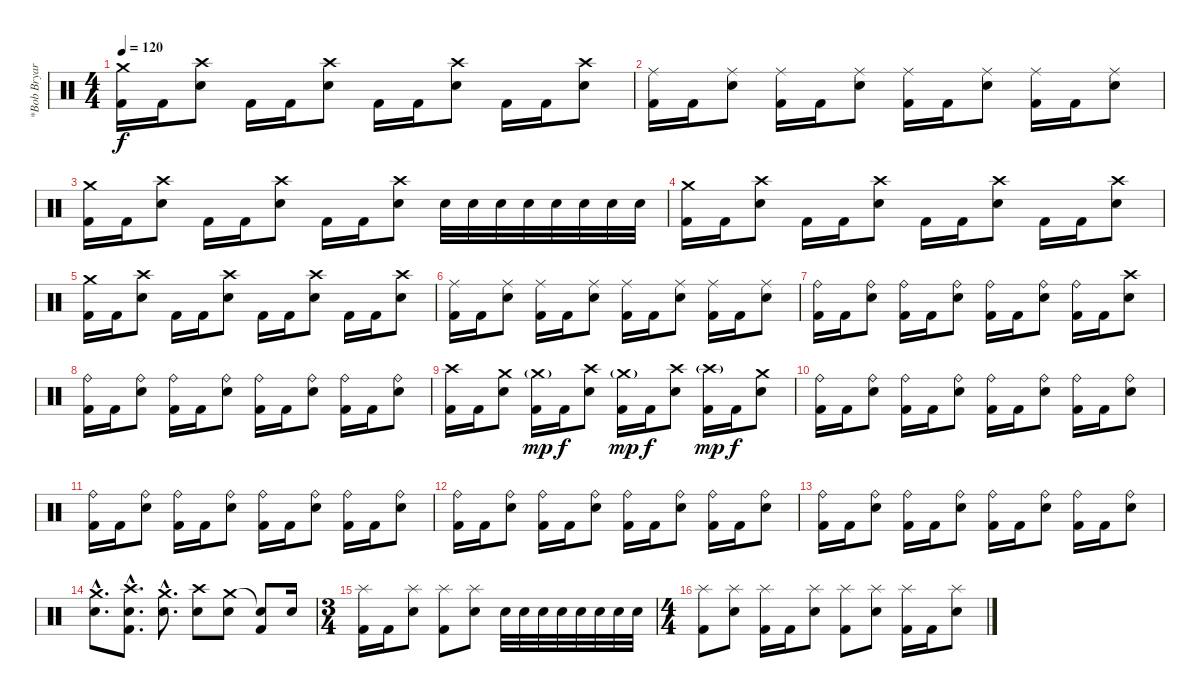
\track ("*Bob Bryar" "*Bob Bryar") {instrument percussion}
\staff {score}
\articulation defaults
\ts (4 4)
\tempo 120
\clef neutral
\ks c
("Crash medium (hit)" "Kick (hit) 2").16{dy f} "Kick (hit) 2".16 ("Crash high (hit)" "Electric Snare (hit)").8 "Kick (hit) 2".16 "Kick (hit) 2".16 ("Crash high (hit)" "Electric Snare (hit)").8 "Kick (hit) 2".16 "Kick (hit) 2".16 ("Crash high (hit)" "Electric Snare (hit)").8 "Kick (hit) 2".16 "Kick (hit) 2".16 ("Crash high (hit)" "Electric Snare (hit)").8 |
("Ride (middle)" "Kick (hit) 2").16 "Kick (hit) 2".16 ("Ride (middle)" "Electric Snare (hit)").8 ("Ride (middle)" "Kick (hit) 2").16 "Kick (hit) 2".16 ("Ride (middle)" "Electric Snare (hit)").8 ("Ride (middle)" "Kick (hit) 2").16 "Kick (hit) 2".16 ("Ride (middle)" "Electric Snare (hit)").8 ("Ride (middle)" "Kick (hit) 2").16 "Kick (hit) 2".16 ("Ride (middle)" "Electric Snare (hit)").8 |
("Crash medium (hit)" "Kick (hit) 2").16 "Kick (hit) 2".16 ("Crash high (hit)" "Electric Snare (hit)").8 "Kick (hit) 2".16 "Kick (hit) 2".16 ("Crash high (hit)" "Electric Snare (hit)").8 "Kick (hit) 2".16 "Kick (hit) 2".16 ("Crash high (hit)" "Electric Snare (hit)").8 "Electric Snare (hit)".32 "Electric Snare (hit)".32 "Electric Snare (hit)".32 "Electric Snare (hit)".32 "Electric Snare (hit)".32 "Electric Snare (hit)".32 "Electric Snare (hit)".32 "Electric Snare (hit)".32 |
("Crash medium (hit)" "Kick (hit) 2").16 "Kick (hit) 2".16 ("Crash high (hit)" "Electric Snare (hit)").8 "Kick (hit) 2".16 "Kick (hit) 2".16 ("Crash high (hit)" "Electric Snare (hit)").8 "Kick (hit) 2".16 "Kick (hit) 2".16 ("Crash high (hit)" "Electric Snare (hit)").8 "Kick (hit) 2".16 "Kick (hit) 2".16 ("Crash high (hit)" "Electric Snare (hit)").8 |
("Crash medium (hit)" "Kick (hit) 2").16 "Kick (hit) 2".16 ("Crash high (hit)" "Electric Snare (hit)").8 "Kick (hit) 2".16 "Kick (hit) 2".16 ("Crash high (hit)" "Electric Snare (hit)").8 "Kick (hit) 2".16 "Kick (hit) 2".16 ("Crash high (hit)" "Electric Snare (hit)").8 "Kick (hit) 2".16 "Kick (hit) 2".16 ("Crash high (hit)" "Electric Snare (hit)").8 |
("Ride (middle)" "Kick (hit) 2").16 "Kick (hit) 2".16 ("Ride (middle)" "Electric Snare (hit)").8 ("Ride (middle)" "Kick (hit) 2").16 "Kick (hit) 2".16 ("Ride (middle)" "Electric Snare (hit)").8 ("Ride (middle)" "Kick (hit) 2").16 "Kick (hit) 2".16 ("Ride (middle)" "Electric Snare (hit)").8 ("Ride (middle)" "Kick (hit) 2").16 "Kick (hit) 2".16 ("Ride (middle)" "Electric Snare (hit)").8 |
("Ride (bell)" "Kick (hit) 2").16 "Kick (hit) 2".16 ("Ride (bell)" "Electric Snare (hit)").8 ("Ride (bell)" "Kick (hit) 2").16 "Kick (hit) 2".16 ("Ride (bell)" "Electric Snare (hit)").8 ("Ride (bell)" "Kick (hit) 2").16 "Kick (hit) 2".16 ("Ride (bell)" "Electric Snare (hit)").8 ("Ride (bell)" "Kick (hit) 2").16 "Kick (hit) 2".16 ("Crash high (hit)" "Electric Snare (hit)").8 |
("Ride (bell)" "Kick (hit) 2").16 "Kick (hit) 2".16 ("Ride (bell)" "Electric Snare (hit)").8 ("Ride (bell)" "Kick (hit) 2").16 "Kick (hit) 2".16 ("Ride (bell)" "Electric Snare (hit)").8 ("Ride (bell)" "Kick (hit) 2").16 "Kick (hit) 2".16 ("Ride (bell)" "Electric Snare (hit)").8 ("Ride (bell)" "Kick (hit) 2").16 "Kick (hit) 2".16 ("Ride (bell)" "Electric Snare (hit)").8 |
("Crash high (hit)" "Kick (hit) 2").16 "Kick (hit) 2".16 ("Crash medium (hit)" "Electric Snare (hit)").8 ("Crash medium (hit)"{g} "Kick (hit) 2").16{dy mp} "Kick (hit) 2".16{dy f} ("Crash high (hit)" "Electric Snare (hit)").8 ("Crash medium (hit)"{g} "Kick (hit) 2").16{dy mp} "Kick (hit) 2".16{dy f} ("Crash high (hit)" "Electric Snare (hit)").8 ("Crash high (hit)"{g} "Kick (hit) 2").16{dy mp} "Kick (hit) 2".16{dy f} ("Crash medium (hit)" "Electric Snare (hit)").8 |
("Ride (bell)" "Kick (hit) 2").16 "Kick (hit) 2".16 ("Ride (bell)" "Electric Snare (hit)").8 ("Ride (bell)" "Kick (hit) 2").16 "Kick (hit) 2".16 ("Ride (bell)" "Electric Snare (hit)").8 ("Ride (bell)" "Kick (hit) 2").16 "Kick (hit) 2".16 ("Ride (bell)" "Electric Snare (hit)").8 ("Ride (bell)" "Kick (hit) 2").16 "Kick (hit) 2".16 ("Ride (bell)" "Electric Snare (hit)").8 |
("Ride (bell)" "Kick (hit) 2").16 "Kick (hit) 2".16 ("Ride (bell)" "Electric Snare (hit)").8 ("Ride (bell)" "Kick (hit) 2").16 "Kick (hit) 2".16 ("Ride (bell)" "Electric Snare (hit)").8 ("Ride (bell)" "Kick (hit) 2").16 "Kick (hit) 2".16 ("Ride (bell)" "Electric Snare (hit)").8 ("Ride (bell)" "Kick (hit) 2").16 "Kick (hit) 2".16 ("Ride (bell)" "Electric Snare (hit)").8 |
("Ride (bell)" "Kick (hit) 2").16 "Kick (hit) 2".16 ("Ride (bell)" "Electric Snare (hit)").8 ("Ride (bell)" "Kick (hit) 2").16 "Kick (hit) 2".16 ("Ride (bell)" "Electric Snare (hit)").8 ("Ride (bell)" "Kick (hit) 2").16 "Kick (hit) 2".16 ("Ride (bell)" "Electric Snare (hit)").8 ("Ride (bell)" "Kick (hit) 2").16 "Kick (hit) 2".16 ("Ride (bell)" "Electric Snare (hit)").8 |
("Ride (bell)" "Kick (hit) 2").16 "Kick (hit) 2".16 ("Ride (bell)" "Electric Snare (hit)").8 ("Ride (bell)" "Kick (hit) 2").16 "Kick (hit) 2".16 ("Ride (bell)" "Electric Snare (hit)").8 ("Ride (bell)" "Kick (hit) 2").16 "Kick (hit) 2".16 ("Ride (bell)" "Electric Snare (hit)").8 ("Ride (bell)" "Kick (hit) 2").16 "Kick (hit) 2".16 ("Ride (bell)" "Electric Snare (hit)").8 |
("Crash medium (hit)"{hac} "Electric Snare (hit)"{hac}).8{d} ("Crash high (hit)"{hac} "Electric Snare (hit)"{hac} "Kick (hit) 2"{hac}).8{d} ("Crash medium (hit)"{hac} "Electric Snare (hit)"{hac}).8{d} ("Crash high (hit)" "Electric Snare (hit)").8 ("Crash medium (hit)" "Electric Snare (hit)").8 ("Snare (hit)"{t} "Kick (hit) 2").8 "Electric Snare (hit)".16 |
\ts (3 4)
("Splash (hit)" "Kick (hit) 2").16 "Kick (hit) 2".16 ("Splash (hit)" "Electric Snare (hit)").8 ("Splash (hit)" "Kick (hit) 2").8 ("Splash (hit)" "Electric Snare (hit)").8 "Electric Snare (hit)".32 "Electric Snare (hit)".32 "Electric Snare (hit)".32 "Electric Snare (hit)".32 "Electric Snare (hit)".32 "Electric Snare (hit)".32 "Electric Snare (hit)".32 "Electric Snare (hit)".32 |
\ts (4 4)
("Splash (hit)" "Kick (hit) 2").8 ("Splash (hit)" "Electric Snare (hit)").8 ("Splash (hit)" "Kick (hit) 2").16 "Kick (hit) 2".16 ("Splash (hit)" "Electric Snare (hit)").8 ("Splash (hit)" "Kick (hit) 2").8 ("Splash (hit)" "Electric Snare (hit)").8 ("Splash (hit)" "Kick (hit) 2").16 "Kick (hit) 2".16 ("Splash (hit)" "Electric Snare (hit)").8
